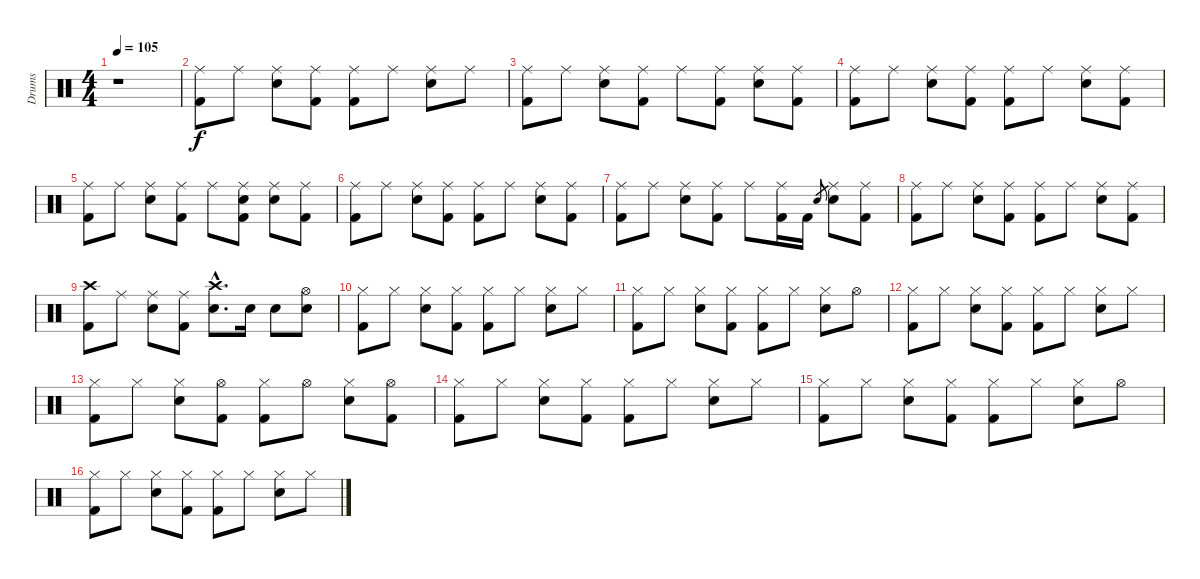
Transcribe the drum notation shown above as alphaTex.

\track ("Drums" "Drums") {instrument percussion}
\staff {score}
\articulation defaults
\ts (4 4)
\tempo 105
\clef neutral
\ks c
r.1{dy f} |
("Ride (middle)" "Kick (hit) 2").8 "Ride (middle)".8 ("Ride (middle)" "Electric Snare (hit)").8 ("Ride (middle)" "Kick (hit) 2").8 ("Ride (middle)" "Kick (hit) 2").8 "Ride (middle)".8 ("Ride (middle)" "Electric Snare (hit)").8 "Ride (middle)".8 |
("Ride (middle)" "Kick (hit) 2").8 "Ride (middle)".8 ("Ride (middle)" "Electric Snare (hit)").8 ("Ride (middle)" "Kick (hit) 2").8 "Ride (middle)".8 ("Ride (middle)" "Kick (hit) 2").8 ("Ride (middle)" "Electric Snare (hit)").8 ("Ride (middle)" "Kick (hit) 2").8 |
("Ride (middle)" "Kick (hit) 2").8 "Ride (middle)".8 ("Ride (middle)" "Electric Snare (hit)").8 ("Ride (middle)" "Kick (hit) 2").8 ("Ride (middle)" "Kick (hit) 2").8 "Ride (middle)".8 ("Ride (middle)" "Electric Snare (hit)").8 ("Ride (middle)" "Kick (hit) 2").8 |
("Ride (middle)" "Kick (hit) 2").8 "Ride (middle)".8 ("Ride (middle)" "Electric Snare (hit)").8 ("Ride (middle)" "Kick (hit) 2").8 "Ride (middle)".8 ("Ride (middle)" "Electric Snare (hit)" "Kick (hit) 2").8 ("Ride (middle)" "Electric Snare (hit)").8 ("Ride (middle)" "Kick (hit) 2").8 |
("Ride (middle)" "Kick (hit) 2").8 "Ride (middle)".8 ("Ride (middle)" "Electric Snare (hit)").8 ("Ride (middle)" "Kick (hit) 2").8 ("Ride (middle)" "Kick (hit) 2").8 "Ride (middle)".8 ("Ride (middle)" "Electric Snare (hit)").8 ("Ride (middle)" "Kick (hit) 2").8 |
("Ride (middle)" "Kick (hit) 2").8 "Ride (middle)".8 ("Ride (middle)" "Electric Snare (hit)").8 ("Ride (middle)" "Kick (hit) 2").8 "Ride (middle)".8 ("Ride (middle)" "Kick (hit) 2").16 "Kick (hit) 2".16 "Electric Snare (hit)".8{gr} ("Ride (middle)" "Electric Snare (hit)").8 ("Ride (middle)" "Kick (hit) 2").8 |
("Ride (middle)" "Kick (hit) 2").8 "Ride (middle)".8 ("Ride (middle)" "Electric Snare (hit)").8 ("Ride (middle)" "Kick (hit) 2").8 ("Ride (middle)" "Kick (hit) 2").8 "Ride (middle)".8 ("Ride (middle)" "Electric Snare (hit)").8 ("Ride (middle)" "Kick (hit) 2").8 |
("Crash high (hit)" "Kick (hit) 2").8 "Ride (middle)".8 ("Ride (middle)" "Electric Snare (hit)").8 ("Ride (middle)" "Kick (hit) 2").8 ("Crash high (hit)"{hac} "Electric Snare (hit)"{hac}).8{d} "Electric Snare (hit)".16 "Electric Snare (hit)".8 ("Hi-Hat (open)" "Electric Snare (hit)").8 |
("Hi-Hat (closed)" "Kick (hit) 2").8 "Hi-Hat (closed)".8 ("Hi-Hat (closed)" "Electric Snare (hit)").8 ("Hi-Hat (closed)" "Kick (hit) 2").8 ("Hi-Hat (closed)" "Kick (hit) 2").8 "Hi-Hat (closed)".8 ("Hi-Hat (closed)" "Electric Snare (hit)").8 "Hi-Hat (closed)".8 |
("Hi-Hat (closed)" "Kick (hit) 2").8 "Hi-Hat (closed)".8 ("Hi-Hat (closed)" "Electric Snare (hit)").8 ("Hi-Hat (closed)" "Kick (hit) 2").8 ("Hi-Hat (closed)" "Kick (hit) 2").8 "Hi-Hat (closed)".8 ("Hi-Hat (closed)" "Electric Snare (hit)").8 "Hi-Hat (open)".8 |
("Hi-Hat (closed)" "Kick (hit) 2").8 "Hi-Hat (closed)".8 ("Hi-Hat (closed)" "Electric Snare (hit)").8 ("Hi-Hat (closed)" "Kick (hit) 2").8 ("Hi-Hat (closed)" "Kick (hit) 2").8 "Hi-Hat (closed)".8 ("Hi-Hat (closed)" "Electric Snare (hit)").8 "Hi-Hat (closed)".8 |
("Hi-Hat (closed)" "Kick (hit) 2").8 "Hi-Hat (closed)".8 ("Hi-Hat (closed)" "Electric Snare (hit)").8 ("Hi-Hat (open)" "Kick (hit) 2").8 ("Hi-Hat (closed)" "Kick (hit) 2").8 "Hi-Hat (open)".8 ("Hi-Hat (closed)" "Electric Snare (hit)").8 ("Hi-Hat (open)" "Kick (hit) 2").8 |
("Hi-Hat (closed)" "Kick (hit) 2").8 "Hi-Hat (closed)".8 ("Hi-Hat (closed)" "Electric Snare (hit)").8 ("Hi-Hat (closed)" "Kick (hit) 2").8 ("Hi-Hat (closed)" "Kick (hit) 2").8 "Hi-Hat (closed)".8 ("Hi-Hat (closed)" "Electric Snare (hit)").8 "Hi-Hat (closed)".8 |
("Hi-Hat (closed)" "Kick (hit) 2").8 "Hi-Hat (closed)".8 ("Hi-Hat (closed)" "Electric Snare (hit)").8 ("Hi-Hat (closed)" "Kick (hit) 2").8 ("Hi-Hat (closed)" "Kick (hit) 2").8 "Hi-Hat (closed)".8 ("Hi-Hat (closed)" "Electric Snare (hit)").8 "Hi-Hat (open)".8 |
("Hi-Hat (closed)" "Kick (hit) 2").8 "Hi-Hat (closed)".8 ("Hi-Hat (closed)" "Electric Snare (hit)").8 ("Hi-Hat (closed)" "Kick (hit) 2").8 ("Hi-Hat (closed)" "Kick (hit) 2").8 "Hi-Hat (closed)".8 ("Hi-Hat (closed)" "Electric Snare (hit)").8 "Hi-Hat (closed)".8
